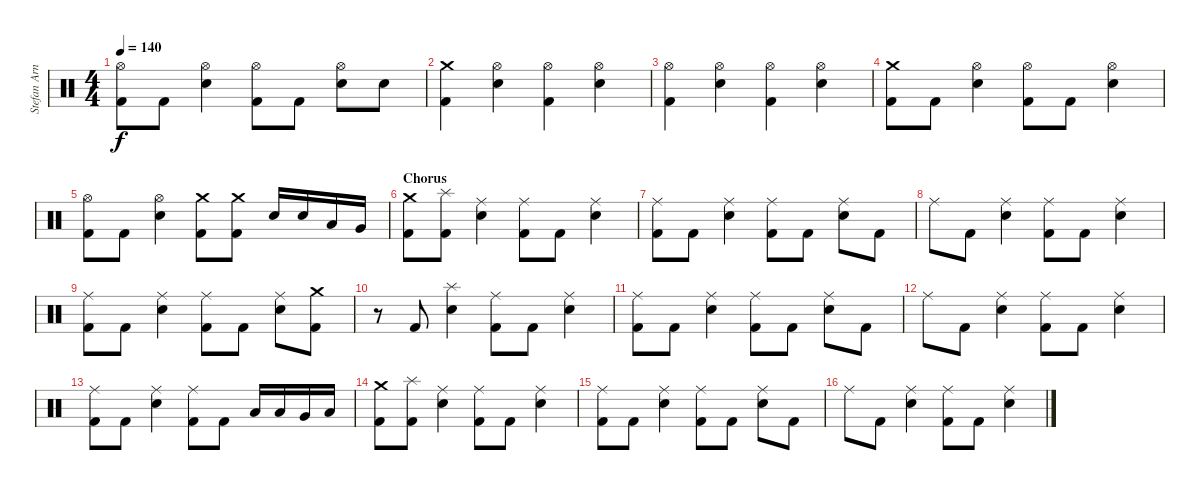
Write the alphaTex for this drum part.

\track ("Stefan Arnold" "Stefan Arn") {instrument percussion}
\staff {score}
\articulation defaults
\ts (4 4)
\tempo 140
\clef neutral
\ks c
("Hi-Hat (open)" "Kick (hit) 2").8{dy f} "Kick (hit) 2".8 ("Hi-Hat (open)" "Electric Snare (hit)").4 ("Hi-Hat (open)" "Kick (hit) 2").8 "Kick (hit) 2".8 ("Hi-Hat (open)" "Electric Snare (hit)").8 "Electric Snare (hit)".8 |
("Crash medium (hit)" "Kick (hit) 2").4 ("Hi-Hat (open)" "Electric Snare (hit)").4 ("Hi-Hat (open)" "Kick (hit) 2").4 ("Hi-Hat (open)" "Electric Snare (hit)").4 |
("Hi-Hat (open)" "Kick (hit) 2").4 ("Hi-Hat (open)" "Electric Snare (hit)").4 ("Hi-Hat (open)" "Kick (hit) 2").4 ("Hi-Hat (open)" "Electric Snare (hit)").4 |
("Crash medium (hit)" "Kick (hit) 2").8 "Kick (hit) 2".8 ("Hi-Hat (open)" "Electric Snare (hit)").4 ("Hi-Hat (open)" "Kick (hit) 2").8 "Kick (hit) 2".8 ("Hi-Hat (open)" "Electric Snare (hit)").4 |
("Hi-Hat (open)" "Kick (hit) 2").8 "Kick (hit) 2".8 ("Hi-Hat (open)" "Electric Snare (hit)").4 ("Crash medium (hit)" "Kick (hit) 2").8 ("Crash medium (hit)" "Kick (hit) 2").8 "Electric Snare (hit)".16 "Electric Snare (hit)".16 "Low Tom (hit)".16 "Very Low Tom (hit)".16 |
\section ("" "Chorus")
("Crash medium (hit)" "Kick (hit) 2").8 ("Splash (hit)" "Kick (hit) 2").8 ("Ride (middle)" "Electric Snare (hit)").4 ("Ride (middle)" "Kick (hit) 2").8 "Kick (hit) 2".8 ("Ride (middle)" "Electric Snare (hit)").4 |
("Ride (middle)" "Kick (hit) 2").8 "Kick (hit) 2".8 ("Ride (middle)" "Electric Snare (hit)").4 ("Ride (middle)" "Kick (hit) 2").8 "Kick (hit) 2".8 ("Ride (middle)" "Electric Snare (hit)").8 "Kick (hit) 2".8 |
"Ride (middle)".8 "Kick (hit) 2".8 ("Ride (middle)" "Electric Snare (hit)").4 ("Ride (middle)" "Kick (hit) 2").8 "Kick (hit) 2".8 ("Ride (middle)" "Electric Snare (hit)").4 |
("Ride (middle)" "Kick (hit) 2").8 "Kick (hit) 2".8 ("Ride (middle)" "Electric Snare (hit)").4 ("Ride (middle)" "Kick (hit) 2").8 "Kick (hit) 2".8 ("Ride (middle)" "Electric Snare (hit)").8 ("Crash medium (hit)" "Kick (hit) 2").8 |
r.8 "Kick (hit) 2".8 ("Splash (hit)" "Electric Snare (hit)").4 ("Ride (middle)" "Kick (hit) 2").8 "Kick (hit) 2".8 ("Ride (middle)" "Electric Snare (hit)").4 |
("Ride (middle)" "Kick (hit) 2").8 "Kick (hit) 2".8 ("Ride (middle)" "Electric Snare (hit)").4 ("Ride (middle)" "Kick (hit) 2").8 "Kick (hit) 2".8 ("Ride (middle)" "Electric Snare (hit)").8 "Kick (hit) 2".8 |
"Ride (middle)".8 "Kick (hit) 2".8 ("Ride (middle)" "Electric Snare (hit)").4 ("Ride (middle)" "Kick (hit) 2").8 "Kick (hit) 2".8 ("Ride (middle)" "Electric Snare (hit)").4 |
("Ride (middle)" "Kick (hit) 2").8 "Kick (hit) 2".8 ("Ride (middle)" "Electric Snare (hit)").4 ("Ride (middle)" "Kick (hit) 2").8 "Kick (hit) 2".8 "Low Tom (hit)".16 "Low Tom (hit)".16 "Very Low Tom (hit)".16 "Low Floor Tom (hit)".16 |
("Crash medium (hit)" "Kick (hit) 2").8 ("Splash (hit)" "Kick (hit) 2").8 ("Ride (middle)" "Electric Snare (hit)").4 ("Ride (middle)" "Kick (hit) 2").8 "Kick (hit) 2".8 ("Ride (middle)" "Electric Snare (hit)").4 |
("Ride (middle)" "Kick (hit) 2").8 "Kick (hit) 2".8 ("Ride (middle)" "Electric Snare (hit)").4 ("Ride (middle)" "Kick (hit) 2").8 "Kick (hit) 2".8 ("Ride (middle)" "Electric Snare (hit)").8 "Kick (hit) 2".8 |
"Ride (middle)".8 "Kick (hit) 2".8 ("Ride (middle)" "Electric Snare (hit)").4 ("Ride (middle)" "Kick (hit) 2").8 "Kick (hit) 2".8 ("Ride (middle)" "Electric Snare (hit)").4
